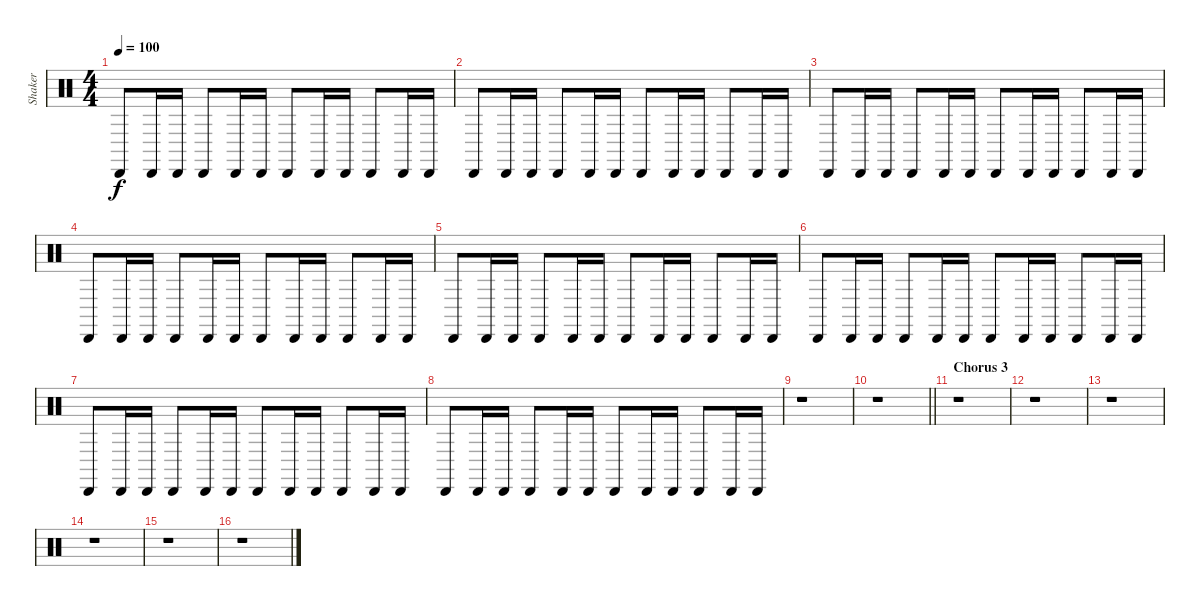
\track ("Shaker" "Shaker") {instrument percussion}
\staff {score}
\articulation defaults
\ts (4 4)
\tempo 100
\clef neutral
\ks c "Cabasa (hit)".8{dy f} "Cabasa (hit)".16 "Cabasa (hit)".16 "Cabasa (hit)".8 "Cabasa (hit)".16 "Cabasa (hit)".16 "Cabasa (hit)".8 "Cabasa (hit)".16 "Cabasa (hit)".16 "Cabasa (hit)".8 "Cabasa (hit)".16 "Cabasa (hit)".16
|
"Cabasa (hit)".8 "Cabasa (hit)".16 "Cabasa (hit)".16 "Cabasa (hit)".8 "Cabasa (hit)".16 "Cabasa (hit)".16 "Cabasa (hit)".8 "Cabasa (hit)".16 "Cabasa (hit)".16 "Cabasa (hit)".8 "Cabasa (hit)".16 "Cabasa (hit)".16 |
"Cabasa (hit)".8 "Cabasa (hit)".16 "Cabasa (hit)".16 "Cabasa (hit)".8 "Cabasa (hit)".16 "Cabasa (hit)".16 "Cabasa (hit)".8 "Cabasa (hit)".16 "Cabasa (hit)".16 "Cabasa (hit)".8 "Cabasa (hit)".16 "Cabasa (hit)".16 |
"Cabasa (hit)".8 "Cabasa (hit)".16 "Cabasa (hit)".16 "Cabasa (hit)".8 "Cabasa (hit)".16 "Cabasa (hit)".16 "Cabasa (hit)".8 "Cabasa (hit)".16 "Cabasa (hit)".16 "Cabasa (hit)".8 "Cabasa (hit)".16 "Cabasa (hit)".16 |
"Cabasa (hit)".8 "Cabasa (hit)".16 "Cabasa (hit)".16 "Cabasa (hit)".8 "Cabasa (hit)".16 "Cabasa (hit)".16 "Cabasa (hit)".8 "Cabasa (hit)".16 "Cabasa (hit)".16 "Cabasa (hit)".8 "Cabasa (hit)".16 "Cabasa (hit)".16 |
"Cabasa (hit)".8 "Cabasa (hit)".16 "Cabasa (hit)".16 "Cabasa (hit)".8 "Cabasa (hit)".16 "Cabasa (hit)".16 "Cabasa (hit)".8 "Cabasa (hit)".16 "Cabasa (hit)".16 "Cabasa (hit)".8 "Cabasa (hit)".16 "Cabasa (hit)".16 |
"Cabasa (hit)".8 "Cabasa (hit)".16 "Cabasa (hit)".16 "Cabasa (hit)".8 "Cabasa (hit)".16 "Cabasa (hit)".16 "Cabasa (hit)".8 "Cabasa (hit)".16 "Cabasa (hit)".16 "Cabasa (hit)".8 "Cabasa (hit)".16 "Cabasa (hit)".16 |
"Cabasa (hit)".8 "Cabasa (hit)".16 "Cabasa (hit)".16 "Cabasa (hit)".8 "Cabasa (hit)".16 "Cabasa (hit)".16 "Cabasa (hit)".8 "Cabasa (hit)".16 "Cabasa (hit)".16 "Cabasa (hit)".8 "Cabasa (hit)".16 "Cabasa (hit)".16 |
r.1 |
\barLineRight lightlight
r.1 |
\section ("" "Chorus 3")
r.1 |
r.1 |
r.1 |
r.1 |
r.1 |
r.1
